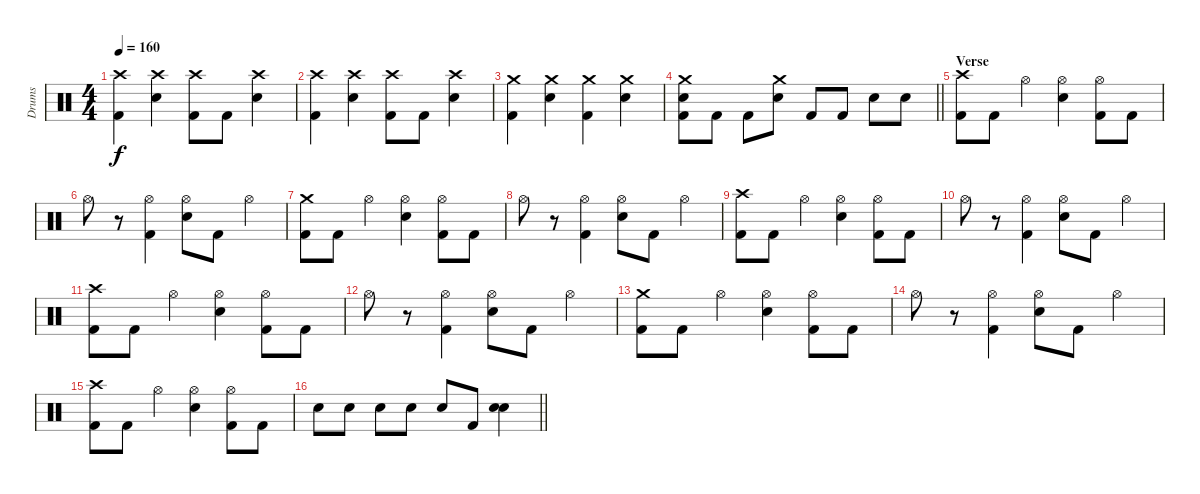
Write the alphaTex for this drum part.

\track ("Drums " "Drums ") {instrument percussion}
\staff {score}
\articulation defaults
\ts (4 4)
\tempo 160
\clef neutral
\ks c
("Crash high (hit)" "Kick (hit) 2").4{dy f} ("Crash high (hit)" "Snare (hit) 2").4 ("Crash high (hit)" "Kick (hit) 2").8 "Kick (hit) 2".8 ("Crash high (hit)" "Snare (hit) 2").4 |
("Crash high (hit)" "Kick (hit) 2").4 ("Crash high (hit)" "Snare (hit) 2").4 ("Crash high (hit)" "Kick (hit) 2").8 "Kick (hit) 2".8 ("Crash high (hit)" "Snare (hit) 2").4 |
("Crash medium (hit)" "Kick (hit) 2").4 ("Crash medium (hit)" "Snare (hit) 2").4 ("Crash medium (hit)" "Kick (hit) 2").4 ("Crash medium (hit)" "Snare (hit) 2").4 |
\barLineRight lightlight
("Crash medium (hit)" "Snare (hit) 2" "Kick (hit) 2").8 "Kick (hit) 2".8 "Kick (hit) 2".8 ("Crash medium (hit)" "Snare (hit) 2").8 "Kick (hit) 2".8 "Kick (hit) 2".8 "Snare (hit) 2".8 "Snare (hit) 2".8 |
\section ("" "Verse")
("Crash high (hit)" "Kick (hit) 2").8 "Kick (hit) 2".8 "Hi-Hat (open)".4 ("Hi-Hat (open)" "Snare (hit) 2").4 ("Hi-Hat (open)" "Kick (hit) 2").8 "Kick (hit) 2".8 |
"Hi-Hat (open)".8 r.8 ("Hi-Hat (open)" "Kick (hit) 2").4 ("Hi-Hat (open)" "Snare (hit) 2").8 "Kick (hit) 2".8 "Hi-Hat (open)".4 |
("Crash medium (hit)" "Kick (hit) 2").8 "Kick (hit) 2".8 "Hi-Hat (open)".4 ("Hi-Hat (open)" "Snare (hit) 2").4 ("Hi-Hat (open)" "Kick (hit) 2").8 "Kick (hit) 2".8 |
"Hi-Hat (open)".8 r.8 ("Hi-Hat (open)" "Kick (hit) 2").4 ("Hi-Hat (open)" "Snare (hit) 2").8 "Kick (hit) 2".8 "Hi-Hat (open)".4 |
("Crash high (hit)" "Kick (hit) 2").8 "Kick (hit) 2".8 "Hi-Hat (open)".4 ("Hi-Hat (open)" "Snare (hit) 2").4 ("Hi-Hat (open)" "Kick (hit) 2").8 "Kick (hit) 2".8 |
"Hi-Hat (open)".8 r.8 ("Hi-Hat (open)" "Kick (hit) 2").4 ("Hi-Hat (open)" "Snare (hit) 2").8 "Kick (hit) 2".8 "Hi-Hat (open)".4 |
("Crash high (hit)" "Kick (hit) 2").8 "Kick (hit) 2".8 "Hi-Hat (open)".4 ("Hi-Hat (open)" "Snare (hit) 2").4 ("Hi-Hat (open)" "Kick (hit) 2").8 "Kick (hit) 2".8 |
"Hi-Hat (open)".8 r.8 ("Hi-Hat (open)" "Kick (hit) 2").4 ("Hi-Hat (open)" "Snare (hit) 2").8 "Kick (hit) 2".8 "Hi-Hat (open)".4 |
("Crash medium (hit)" "Kick (hit) 2").8 "Kick (hit) 2".8 "Hi-Hat (open)".4 ("Hi-Hat (open)" "Snare (hit) 2").4 ("Hi-Hat (open)" "Kick (hit) 2").8 "Kick (hit) 2".8 |
"Hi-Hat (open)".8 r.8 ("Hi-Hat (open)" "Kick (hit) 2").4 ("Hi-Hat (open)" "Snare (hit) 2").8 "Kick (hit) 2".8 "Hi-Hat (open)".4 |
("Crash high (hit)" "Kick (hit) 2").8 "Kick (hit) 2".8 "Hi-Hat (open)".4 ("Hi-Hat (open)" "Snare (hit) 2").4 ("Hi-Hat (open)" "Kick (hit) 2").8 "Kick (hit) 2".8 |
\barLineRight lightlight "Snare (hit) 2".8 "Snare (hit) 2".8 "Snare (hit) 2".8 "Snare (hit) 2".8 "Snare (hit) 2".8 "Kick (hit) 2".8
("Snare (hit) 2" "Snare (hit) 2").4
